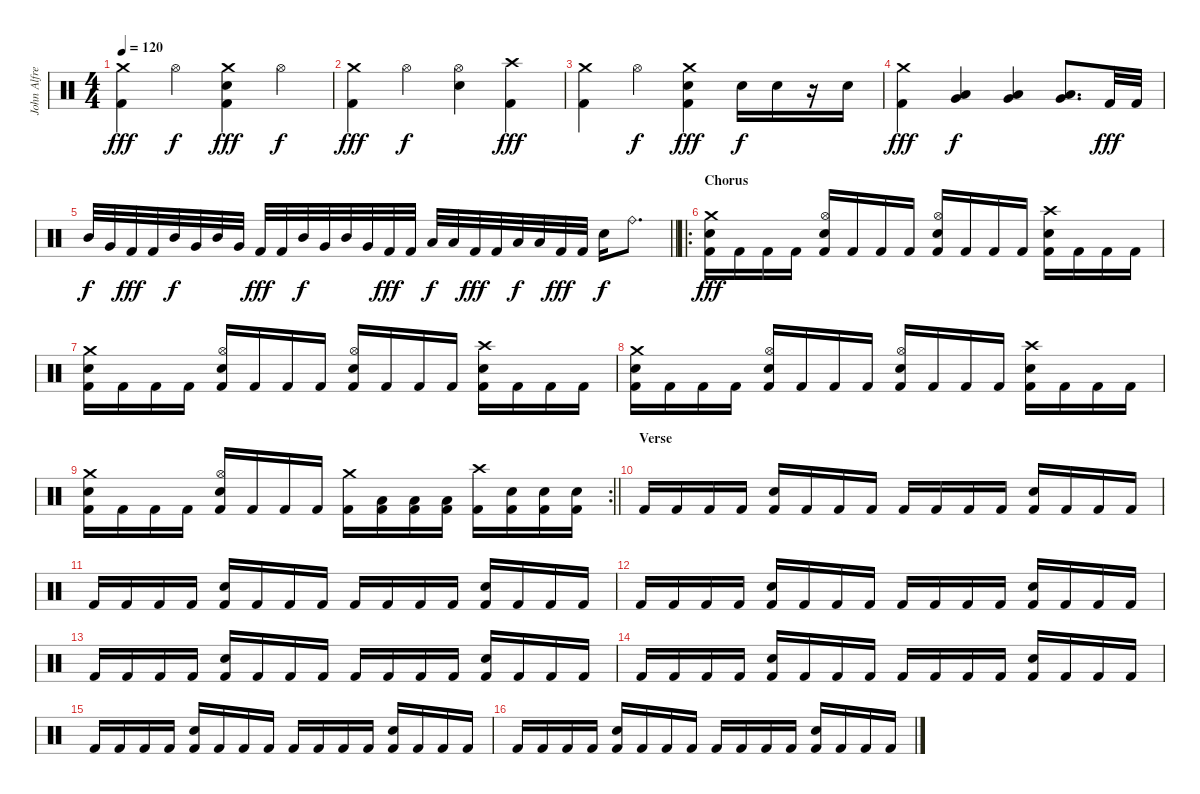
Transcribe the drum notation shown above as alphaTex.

\track ("John Alfredsson" "John Alfre") {instrument percussion}
\staff {score}
\articulation defaults
\ts (4 4)
\tempo 120
\clef neutral
\ks c
("Crash medium (hit)" "Kick (hit) 2").4{dy fff} "Hi-Hat (open)".4{dy f} ("Crash medium (hit)" "Electric Snare (hit)" "Kick (hit) 2").4{dy fff} "Hi-Hat (open)".4{dy f} |
("Crash medium (hit)" "Kick (hit) 2").4{dy fff} "Hi-Hat (open)".4{dy f} ("Hi-Hat (open)" "Electric Snare (hit)").4 ("Crash high (hit)" "Kick (hit) 2").4{dy fff} |
("Crash medium (hit)" "Kick (hit) 2").4 "Hi-Hat (open)".4{dy f} ("Crash medium (hit)" "Electric Snare (hit)" "Kick (hit) 2").4{dy fff} "Electric Snare (hit)".16{dy f} "Electric Snare (hit)".16 r.16 "Electric Snare (hit)".16 |
("Crash medium (hit)" "Kick (hit) 2").4{dy fff} ("Low Floor Tom (hit)" "Very Low Tom (hit)").4{dy f} ("Low Floor Tom (hit)" "Very Low Tom (hit)").4 ("Low Floor Tom (hit)" "Very Low Tom (hit)").8{d} "Kick (hit) 2".32{dy fff} "Kick (hit) 2".32 |
\barLineRight lightlight "Mid Tom (hit)".32{dy f} "Very Low Tom (hit)".32 "Kick (hit) 2".32{dy fff} "Kick (hit) 2".32 "Mid Tom (hit)".32{dy f} "Very Low Tom (hit)".32 "Mid Tom (hit)".32 "Very Low Tom (hit)".32 "Kick (hit) 2".32{dy fff} "Kick (hit) 2".32 "Mid Tom (hit)".32{dy f} "Very Low Tom (hit)".32 "Mid Tom (hit)".32 "Very Low Tom (hit)".32 "Kick (hit) 2".32{dy fff} "Kick (hit) 2".32 "Low Tom (hit)".32{dy f} "Low Tom (hit)".32 "Kick (hit) 2".32{dy fff} "Kick (hit) 2".32 "Low Floor Tom (hit)".32{dy f} "Low Floor Tom (hit)".32 "Kick (hit) 2".32{dy fff} "Kick (hit) 2".32 "Electric Snare (hit)".16{dy f} "Ride (bell)".8{d}
|
\ro
\section ("" "Chorus")
("Crash medium (hit)" "Electric Snare (hit)" "Kick (hit) 2").16{dy fff} "Kick (hit) 2".16 "Kick (hit) 2".16 "Kick (hit) 2".16 ("Hi-Hat (open)" "Electric Snare (hit)" "Kick (hit) 2").16 "Kick (hit) 2".16 "Kick (hit) 2".16 "Kick (hit) 2".16 ("Hi-Hat (open)" "Electric Snare (hit)" "Kick (hit) 2").16 "Kick (hit) 2".16 "Kick (hit) 2".16 "Kick (hit) 2".16 ("Crash high (hit)" "Electric Snare (hit)" "Kick (hit) 2").16 "Kick (hit) 2".16 "Kick (hit) 2".16 "Kick (hit) 2".16 |
("Crash medium (hit)" "Electric Snare (hit)" "Kick (hit) 2").16 "Kick (hit) 2".16 "Kick (hit) 2".16 "Kick (hit) 2".16 ("Hi-Hat (open)" "Electric Snare (hit)" "Kick (hit) 2").16 "Kick (hit) 2".16 "Kick (hit) 2".16 "Kick (hit) 2".16 ("Hi-Hat (open)" "Electric Snare (hit)" "Kick (hit) 2").16 "Kick (hit) 2".16 "Kick (hit) 2".16 "Kick (hit) 2".16 ("Crash high (hit)" "Electric Snare (hit)" "Kick (hit) 2").16 "Kick (hit) 2".16 "Kick (hit) 2".16 "Kick (hit) 2".16 |
("Crash medium (hit)" "Electric Snare (hit)" "Kick (hit) 2").16 "Kick (hit) 2".16 "Kick (hit) 2".16 "Kick (hit) 2".16 ("Hi-Hat (open)" "Electric Snare (hit)" "Kick (hit) 2").16 "Kick (hit) 2".16 "Kick (hit) 2".16 "Kick (hit) 2".16 ("Hi-Hat (open)" "Electric Snare (hit)" "Kick (hit) 2").16 "Kick (hit) 2".16 "Kick (hit) 2".16 "Kick (hit) 2".16 ("Crash high (hit)" "Electric Snare (hit)" "Kick (hit) 2").16 "Kick (hit) 2".16 "Kick (hit) 2".16 "Kick (hit) 2".16 |
\rc 2
\barLineRight lightlight
("Crash medium (hit)" "Electric Snare (hit)" "Kick (hit) 2").16 "Kick (hit) 2".16 "Kick (hit) 2".16 "Kick (hit) 2".16 ("Hi-Hat (open)" "Electric Snare (hit)" "Kick (hit) 2").16 "Kick (hit) 2".16 "Kick (hit) 2".16 "Kick (hit) 2".16 ("Crash medium (hit)" "Kick (hit) 2").16 ("Low Tom (hit)" "Kick (hit) 2").16 ("Low Tom (hit)" "Kick (hit) 2").16 ("Low Tom (hit)" "Kick (hit) 2").16 ("Crash high (hit)" "Kick (hit) 2").16 ("Electric Snare (hit)" "Kick (hit) 2").16 ("Electric Snare (hit)" "Kick (hit) 2").16 ("Electric Snare (hit)" "Kick (hit) 2").16 |
\section ("" "Verse")
"Kick (hit) 2".16 "Kick (hit) 2".16 "Kick (hit) 2".16 "Kick (hit) 2".16 ("Electric Snare (hit)" "Kick (hit) 2").16 "Kick (hit) 2".16 "Kick (hit) 2".16 "Kick (hit) 2".16 "Kick (hit) 2".16 "Kick (hit) 2".16 "Kick (hit) 2".16 "Kick (hit) 2".16 ("Electric Snare (hit)" "Kick (hit) 2").16 "Kick (hit) 2".16 "Kick (hit) 2".16 "Kick (hit) 2".16 |
"Kick (hit) 2".16 "Kick (hit) 2".16 "Kick (hit) 2".16 "Kick (hit) 2".16 ("Electric Snare (hit)" "Kick (hit) 2").16 "Kick (hit) 2".16 "Kick (hit) 2".16 "Kick (hit) 2".16 "Kick (hit) 2".16 "Kick (hit) 2".16 "Kick (hit) 2".16 "Kick (hit) 2".16 ("Electric Snare (hit)" "Kick (hit) 2").16 "Kick (hit) 2".16 "Kick (hit) 2".16 "Kick (hit) 2".16 |
"Kick (hit) 2".16 "Kick (hit) 2".16 "Kick (hit) 2".16 "Kick (hit) 2".16 ("Electric Snare (hit)" "Kick (hit) 2").16 "Kick (hit) 2".16 "Kick (hit) 2".16 "Kick (hit) 2".16 "Kick (hit) 2".16 "Kick (hit) 2".16 "Kick (hit) 2".16 "Kick (hit) 2".16 ("Electric Snare (hit)" "Kick (hit) 2").16 "Kick (hit) 2".16 "Kick (hit) 2".16 "Kick (hit) 2".16 |
"Kick (hit) 2".16 "Kick (hit) 2".16 "Kick (hit) 2".16 "Kick (hit) 2".16 ("Electric Snare (hit)" "Kick (hit) 2").16 "Kick (hit) 2".16 "Kick (hit) 2".16 "Kick (hit) 2".16 "Kick (hit) 2".16 "Kick (hit) 2".16 "Kick (hit) 2".16 "Kick (hit) 2".16 ("Electric Snare (hit)" "Kick (hit) 2").16 "Kick (hit) 2".16 "Kick (hit) 2".16 "Kick (hit) 2".16 |
"Kick (hit) 2".16 "Kick (hit) 2".16 "Kick (hit) 2".16 "Kick (hit) 2".16 ("Electric Snare (hit)" "Kick (hit) 2").16 "Kick (hit) 2".16 "Kick (hit) 2".16 "Kick (hit) 2".16 "Kick (hit) 2".16 "Kick (hit) 2".16 "Kick (hit) 2".16 "Kick (hit) 2".16 ("Electric Snare (hit)" "Kick (hit) 2").16 "Kick (hit) 2".16 "Kick (hit) 2".16 "Kick (hit) 2".16 |
"Kick (hit) 2".16 "Kick (hit) 2".16 "Kick (hit) 2".16 "Kick (hit) 2".16 ("Electric Snare (hit)" "Kick (hit) 2").16 "Kick (hit) 2".16 "Kick (hit) 2".16 "Kick (hit) 2".16 "Kick (hit) 2".16 "Kick (hit) 2".16 "Kick (hit) 2".16 "Kick (hit) 2".16 ("Electric Snare (hit)" "Kick (hit) 2").16 "Kick (hit) 2".16 "Kick (hit) 2".16 "Kick (hit) 2".16 |
"Kick (hit) 2".16 "Kick (hit) 2".16 "Kick (hit) 2".16 "Kick (hit) 2".16 ("Electric Snare (hit)" "Kick (hit) 2").16 "Kick (hit) 2".16 "Kick (hit) 2".16 "Kick (hit) 2".16 "Kick (hit) 2".16 "Kick (hit) 2".16 "Kick (hit) 2".16 "Kick (hit) 2".16 ("Electric Snare (hit)" "Kick (hit) 2").16 "Kick (hit) 2".16 "Kick (hit) 2".16 "Kick (hit) 2".16
